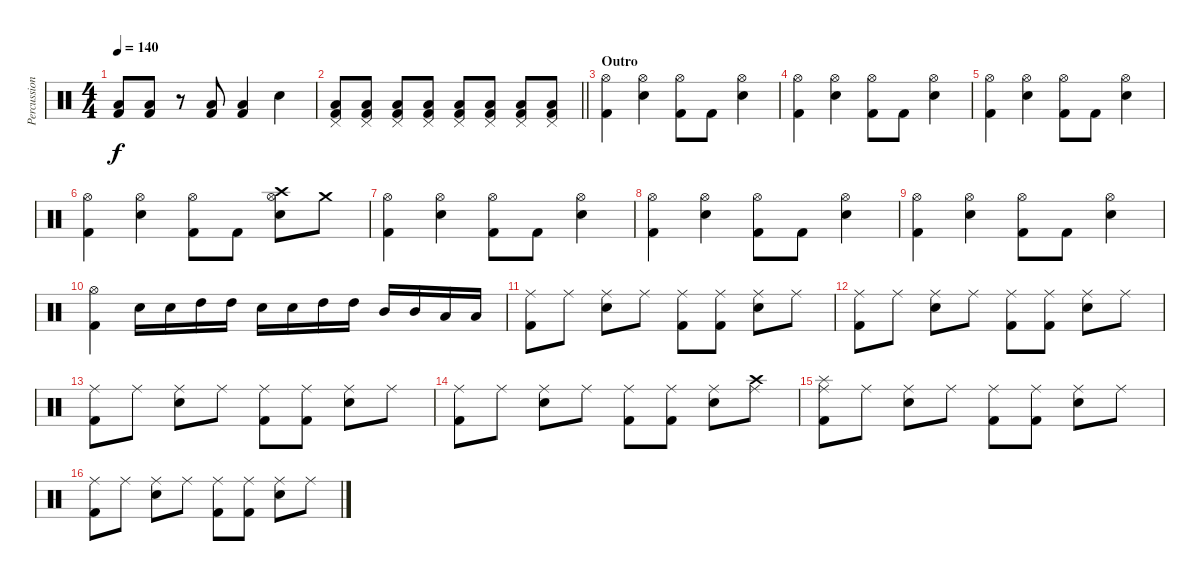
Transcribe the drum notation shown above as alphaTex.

\track ("Percussion" "Percussion") {instrument percussion}
\staff {score}
\articulation defaults
\ts (4 4)
\tempo 140
\clef neutral
\ks c
("Low Tom (hit)" "Kick (hit) 2").8{dy f} ("Low Tom (hit)" "Kick (hit) 2").8 r.8 ("Low Tom (hit)" "Kick (hit) 2").8 ("Low Tom (hit)" "Kick (hit) 2").4 "Snare (hit) 2".4 |
\barLineRight lightlight
("Low Tom (hit)" "Kick (hit) 2" "Pedal Hi-Hat (hit)").8 ("Low Tom (hit)" "Kick (hit) 2" "Pedal Hi-Hat (hit)").8 ("Low Tom (hit)" "Kick (hit) 2" "Pedal Hi-Hat (hit)").8 ("Low Tom (hit)" "Kick (hit) 2" "Pedal Hi-Hat (hit)").8 ("Low Tom (hit)" "Kick (hit) 2" "Pedal Hi-Hat (hit)").8 ("Low Tom (hit)" "Kick (hit) 2" "Pedal Hi-Hat (hit)").8 ("Low Tom (hit)" "Kick (hit) 2" "Pedal Hi-Hat (hit)").8 ("Low Tom (hit)" "Kick (hit) 2" "Pedal Hi-Hat (hit)").8 |
\section ("" "Outro")
("Kick (hit) 2" "Hi-Hat (open)").4 ("Snare (hit) 2" "Hi-Hat (open)").4 ("Kick (hit) 2" "Hi-Hat (open)").8 "Kick (hit) 2".8 ("Snare (hit) 2" "Hi-Hat (open)").4 |
("Kick (hit) 2" "Hi-Hat (open)").4 ("Snare (hit) 2" "Hi-Hat (open)").4 ("Kick (hit) 2" "Hi-Hat (open)").8 "Kick (hit) 2".8 ("Snare (hit) 2" "Hi-Hat (open)").4 |
("Kick (hit) 2" "Hi-Hat (open)").4 ("Snare (hit) 2" "Hi-Hat (open)").4 ("Kick (hit) 2" "Hi-Hat (open)").8 "Kick (hit) 2".8 ("Snare (hit) 2" "Hi-Hat (open)").4 |
("Kick (hit) 2" "Hi-Hat (open)").4 ("Snare (hit) 2" "Hi-Hat (open)").4 ("Kick (hit) 2" "Hi-Hat (open)").8 "Kick (hit) 2".8 ("Crash high (hit)" "Snare (hit) 2" "Hi-Hat (open)").8 "Crash medium (hit)".8 |
("Kick (hit) 2" "Hi-Hat (open)").4 ("Snare (hit) 2" "Hi-Hat (open)").4 ("Kick (hit) 2" "Hi-Hat (open)").8 "Kick (hit) 2".8 ("Snare (hit) 2" "Hi-Hat (open)").4 |
("Kick (hit) 2" "Hi-Hat (open)").4 ("Snare (hit) 2" "Hi-Hat (open)").4 ("Kick (hit) 2" "Hi-Hat (open)").8 "Kick (hit) 2".8 ("Snare (hit) 2" "Hi-Hat (open)").4 |
("Kick (hit) 2" "Hi-Hat (open)").4 ("Snare (hit) 2" "Hi-Hat (open)").4 ("Kick (hit) 2" "Hi-Hat (open)").8 "Kick (hit) 2".8 ("Snare (hit) 2" "Hi-Hat (open)").4 |
("Kick (hit) 2" "Hi-Hat (open)").4 "Snare (hit) 2".16 "Snare (hit) 2".16 "High Tom (hit)".16 "High Tom (hit)".16 "Snare (hit) 2".16 "Snare (hit) 2".16 "High Tom (hit)".16 "High Tom (hit)".16 "Mid Tom (hit)".16 "Mid Tom (hit)".16 "Low Tom (hit)".16 "Low Tom (hit)".16 |
("Kick (hit) 2" "Ride (middle)").8 "Ride (middle)".8 ("Snare (hit) 2" "Ride (middle)").8 "Ride (middle)".8 ("Kick (hit) 2" "Ride (middle)").8 ("Kick (hit) 2" "Ride (middle)").8 ("Snare (hit) 2" "Ride (middle)").8 "Ride (middle)".8 |
("Kick (hit) 2" "Ride (middle)").8 "Ride (middle)".8 ("Snare (hit) 2" "Ride (middle)").8 "Ride (middle)".8 ("Kick (hit) 2" "Ride (middle)").8 ("Kick (hit) 2" "Ride (middle)").8 ("Snare (hit) 2" "Ride (middle)").8 "Ride (middle)".8 |
("Kick (hit) 2" "Ride (middle)").8 "Ride (middle)".8 ("Snare (hit) 2" "Ride (middle)").8 "Ride (middle)".8 ("Kick (hit) 2" "Ride (middle)").8 ("Kick (hit) 2" "Ride (middle)").8 ("Snare (hit) 2" "Ride (middle)").8 "Ride (middle)".8 |
("Kick (hit) 2" "Ride (middle)").8 "Ride (middle)".8 ("Snare (hit) 2" "Ride (middle)").8 "Ride (middle)".8 ("Kick (hit) 2" "Ride (middle)").8 ("Kick (hit) 2" "Ride (middle)").8 ("Snare (hit) 2" "Ride (middle)").8 ("Crash high (hit)" "Ride (middle)").8 |
("Splash (hit)" "Kick (hit) 2" "Ride (middle)").8 "Ride (middle)".8 ("Snare (hit) 2" "Ride (middle)").8 "Ride (middle)".8 ("Kick (hit) 2" "Ride (middle)").8 ("Kick (hit) 2" "Ride (middle)").8 ("Snare (hit) 2" "Ride (middle)").8 "Ride (middle)".8 |
("Kick (hit) 2" "Ride (middle)").8 "Ride (middle)".8 ("Snare (hit) 2" "Ride (middle)").8 "Ride (middle)".8 ("Kick (hit) 2" "Ride (middle)").8 ("Kick (hit) 2" "Ride (middle)").8 ("Snare (hit) 2" "Ride (middle)").8 "Ride (middle)".8
